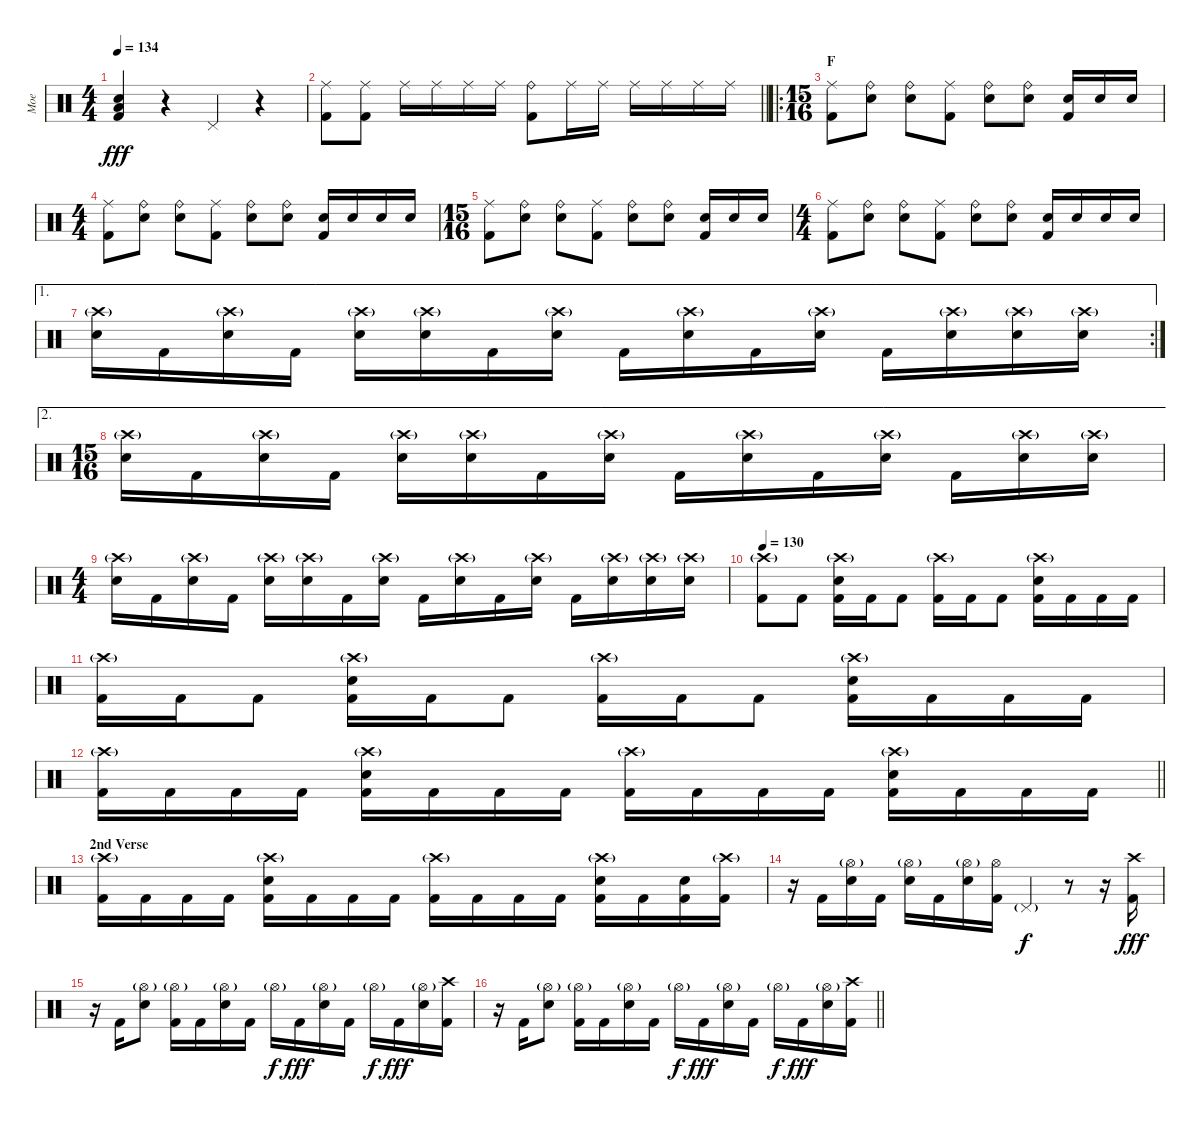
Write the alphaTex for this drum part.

\track ("Moe" "Moe") {instrument percussion}
\staff {score}
\articulation defaults
\ts (4 4)
\tempo 134
\clef neutral
\ks c
("Electric Snare (hit)" "Low Floor Tom (hit)" "Kick (hit) 2").4{dy fff} r.4 "Pedal Hi-Hat (hit)".4 r.4 |
\barLineRight lightlight
("Ride (middle)" "Kick (hit) 2").8 ("Ride (middle)" "Kick (hit) 2").8 "Ride (middle)".16 "Ride (middle)".16 "Ride (middle)".16 "Ride (middle)".16 ("Ride (bell)" "Kick (hit) 2").8 "Ride (middle)".16 "Ride (middle)".16 "Ride (middle)".16 "Ride (middle)".16 "Ride (middle)".16 "Ride (middle)".16 |
\ro
\ts (15 16)
\section ("" "F")
("Ride (middle)" "Kick (hit) 2").8 ("Ride (bell)" "Electric Snare (hit)").8 ("Ride (bell)" "Electric Snare (hit)").8 ("Ride (middle)" "Kick (hit) 2").8 ("Ride (bell)" "Electric Snare (hit)").8 ("Ride (bell)" "Electric Snare (hit)").8 ("Electric Snare (hit)" "Kick (hit) 2").16 "Electric Snare (hit)".16 "Electric Snare (hit)".16 |
\ts (4 4)
("Ride (middle)" "Kick (hit) 2").8 ("Ride (bell)" "Electric Snare (hit)").8 ("Ride (bell)" "Electric Snare (hit)").8 ("Ride (middle)" "Kick (hit) 2").8 ("Ride (bell)" "Electric Snare (hit)").8 ("Ride (bell)" "Electric Snare (hit)").8 ("Electric Snare (hit)" "Kick (hit) 2").16 "Electric Snare (hit)".16 "Electric Snare (hit)".16 "Electric Snare (hit)".16 |
\ts (15 16)
("Ride (middle)" "Kick (hit) 2").8 ("Ride (bell)" "Electric Snare (hit)").8 ("Ride (bell)" "Electric Snare (hit)").8 ("Ride (middle)" "Kick (hit) 2").8 ("Ride (bell)" "Electric Snare (hit)").8 ("Ride (bell)" "Electric Snare (hit)").8 ("Electric Snare (hit)" "Kick (hit) 2").16 "Electric Snare (hit)".16 "Electric Snare (hit)".16 |
\ts (4 4)
("Ride (middle)" "Kick (hit) 2").8 ("Ride (bell)" "Electric Snare (hit)").8 ("Ride (bell)" "Electric Snare (hit)").8 ("Ride (middle)" "Kick (hit) 2").8 ("Ride (bell)" "Electric Snare (hit)").8 ("Ride (bell)" "Electric Snare (hit)").8 ("Electric Snare (hit)" "Kick (hit) 2").16 "Electric Snare (hit)".16 "Electric Snare (hit)".16 "Electric Snare (hit)".16 |
\ae 1
\rc 2
("Crash high (hit)"{g} "Electric Snare (hit)").16 "Kick (hit) 2".16 ("Crash high (hit)"{g} "Electric Snare (hit)").16 "Kick (hit) 2".16 ("Crash high (hit)"{g} "Electric Snare (hit)").16 ("Crash high (hit)"{g} "Electric Snare (hit)").16 "Kick (hit) 2".16 ("Crash high (hit)"{g} "Electric Snare (hit)").16 "Kick (hit) 2".16 ("Crash high (hit)"{g} "Electric Snare (hit)").16 "Kick (hit) 2".16 ("Crash high (hit)"{g} "Electric Snare (hit)").16 "Kick (hit) 2".16 ("Crash high (hit)"{g} "Electric Snare (hit)").16 ("Crash high (hit)"{g} "Electric Snare (hit)").16 ("Crash high (hit)"{g} "Electric Snare (hit)").16 |
\ae 2
\ts (15 16)
("Crash high (hit)"{g} "Electric Snare (hit)").16 "Kick (hit) 2".16 ("Crash high (hit)"{g} "Electric Snare (hit)").16 "Kick (hit) 2".16 ("Crash high (hit)"{g} "Electric Snare (hit)").16 ("Crash high (hit)"{g} "Electric Snare (hit)").16 "Kick (hit) 2".16 ("Crash high (hit)"{g} "Electric Snare (hit)").16 "Kick (hit) 2".16 ("Crash high (hit)"{g} "Electric Snare (hit)").16 "Kick (hit) 2".16 ("Crash high (hit)"{g} "Electric Snare (hit)").16 "Kick (hit) 2".16 ("Crash high (hit)"{g} "Electric Snare (hit)").16 ("Crash high (hit)"{g} "Electric Snare (hit)").16 |
\ts (4 4)
("Crash high (hit)"{g} "Electric Snare (hit)").16 "Kick (hit) 2".16 ("Crash high (hit)"{g} "Electric Snare (hit)").16 "Kick (hit) 2".16 ("Crash high (hit)"{g} "Electric Snare (hit)").16 ("Crash high (hit)"{g} "Electric Snare (hit)").16 "Kick (hit) 2".16 ("Crash high (hit)"{g} "Electric Snare (hit)").16 "Kick (hit) 2".16 ("Crash high (hit)"{g} "Electric Snare (hit)").16 "Kick (hit) 2".16 ("Crash high (hit)"{g} "Electric Snare (hit)").16 "Kick (hit) 2".16 ("Crash high (hit)"{g} "Electric Snare (hit)").16 ("Crash high (hit)"{g} "Electric Snare (hit)").16 ("Crash high (hit)"{g} "Electric Snare (hit)").16 |
\tempo 130
("Crash high (hit)"{g} "Kick (hit) 2").8 "Kick (hit) 2".8 ("Crash high (hit)"{g} "Electric Snare (hit)" "Kick (hit) 2").16 "Kick (hit) 2".16 "Kick (hit) 2".8 ("Crash high (hit)"{g} "Kick (hit) 2").16 "Kick (hit) 2".16 "Kick (hit) 2".8 ("Crash high (hit)"{g} "Electric Snare (hit)" "Kick (hit) 2").16 "Kick (hit) 2".16 "Kick (hit) 2".16 "Kick (hit) 2".16 |
("Crash high (hit)"{g} "Kick (hit) 2").16 "Kick (hit) 2".16 "Kick (hit) 2".8 ("Crash high (hit)"{g} "Electric Snare (hit)" "Kick (hit) 2").16 "Kick (hit) 2".16 "Kick (hit) 2".8 ("Crash high (hit)"{g} "Kick (hit) 2").16 "Kick (hit) 2".16 "Kick (hit) 2".8 ("Crash high (hit)"{g} "Electric Snare (hit)" "Kick (hit) 2").16 "Kick (hit) 2".16 "Kick (hit) 2".16 "Kick (hit) 2".16 |
\barLineRight lightlight
("Crash high (hit)"{g} "Kick (hit) 2").16 "Kick (hit) 2".16 "Kick (hit) 2".16 "Kick (hit) 2".16 ("Crash high (hit)"{g} "Electric Snare (hit)" "Kick (hit) 2").16 "Kick (hit) 2".16 "Kick (hit) 2".16 "Kick (hit) 2".16 ("Crash high (hit)"{g} "Kick (hit) 2").16 "Kick (hit) 2".16 "Kick (hit) 2".16 "Kick (hit) 2".16 ("Crash high (hit)"{g} "Electric Snare (hit)" "Kick (hit) 2").16 "Kick (hit) 2".16 "Kick (hit) 2".16 "Kick (hit) 2".16 |
\section ("" "2nd Verse")
("Crash high (hit)"{g} "Kick (hit) 2").16 "Kick (hit) 2".16 "Kick (hit) 2".16 "Kick (hit) 2".16 ("Crash high (hit)"{g} "Electric Snare (hit)" "Kick (hit) 2").16 "Kick (hit) 2".16 "Kick (hit) 2".16 "Kick (hit) 2".16 ("Crash high (hit)"{g} "Kick (hit) 2").16 "Kick (hit) 2".16 "Kick (hit) 2".16 "Kick (hit) 2".16 ("Crash high (hit)"{g} "Electric Snare (hit)" "Kick (hit) 2").16 "Kick (hit) 2".16 ("Electric Snare (hit)" "Kick (hit) 2").16 ("Crash high (hit)"{g} "Kick (hit) 2").16 |
r.16 "Kick (hit) 2".16 ("Hi-Hat (open)"{g} "Electric Snare (hit)").16 "Kick (hit) 2".16 ("Hi-Hat (open)"{g} "Electric Snare (hit)").16 "Kick (hit) 2".16 ("Hi-Hat (open)"{g} "Electric Snare (hit)").16 ("Hi-Hat (open)" "Kick (hit) 2").16 "Pedal Hi-Hat (hit)"{g}.4{dy f} r.8 r.16 ("Crash high (hit)" "Kick (hit) 2").16{dy fff} |
r.16 "Kick (hit) 2".16 ("Hi-Hat (open)"{g} "Electric Snare (hit)").8 ("Hi-Hat (open)"{g} "Kick (hit) 2").16 "Kick (hit) 2".16 ("Hi-Hat (open)"{g} "Electric Snare (hit)").16 "Kick (hit) 2".16 "Hi-Hat (open)"{g}.16{dy f} "Kick (hit) 2".16{dy fff} ("Hi-Hat (open)"{g} "Electric Snare (hit)").16 "Kick (hit) 2".16 "Hi-Hat (open)"{g}.16{dy f} "Kick (hit) 2".16{dy fff} ("Hi-Hat (open)"{g} "Electric Snare (hit)").16 ("Crash high (hit)" "Kick (hit) 2").16 |
\barLineRight lightlight
r.16 "Kick (hit) 2".16 ("Hi-Hat (open)"{g} "Electric Snare (hit)").8 ("Hi-Hat (open)"{g} "Kick (hit) 2").16 "Kick (hit) 2".16 ("Hi-Hat (open)"{g} "Electric Snare (hit)").16 "Kick (hit) 2".16 "Hi-Hat (open)"{g}.16{dy f} "Kick (hit) 2".16{dy fff} ("Hi-Hat (open)"{g} "Electric Snare (hit)").16 "Kick (hit) 2".16 "Hi-Hat (open)"{g}.16{dy f} "Kick (hit) 2".16{dy fff} ("Hi-Hat (open)"{g} "Electric Snare (hit)").16 ("Crash high (hit)" "Kick (hit) 2").16
